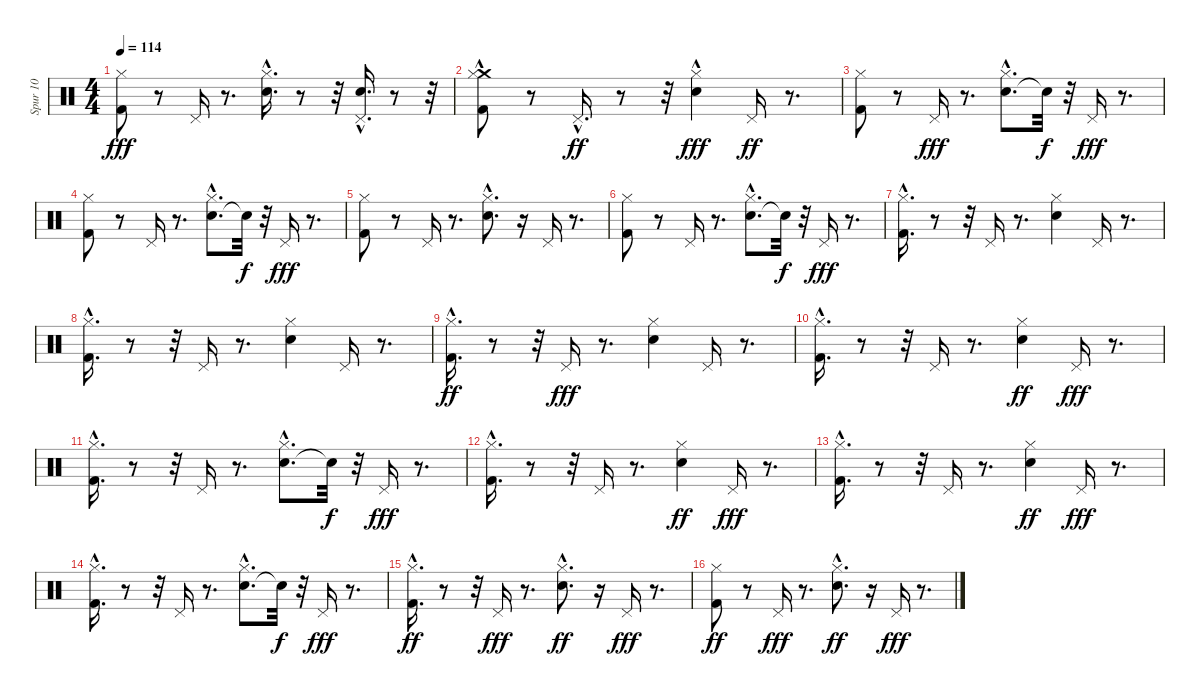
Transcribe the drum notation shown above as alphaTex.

\track ("Spur 10" "Spur 10") {instrument percussion}
\staff {score}
\articulation defaults
\ts (4 4)
\tempo 114
\clef neutral
\ks c
("Kick (hit) 2" "Hi-Hat (closed)").8{dy fff} r.8 "Pedal Hi-Hat (hit)".16 r.8{d} ("Snare (hit) 2"{hac} "Hi-Hat (closed)").16{d} r.8 r.32 ("Snare (hit) 2"{hac} "Pedal Hi-Hat (hit)").16{d} r.8 r.32 |
("Kick (hit) 2" "Crash medium (hit)"{hac} "Hi-Hat (closed)"{hac}).8 r.8 "Pedal Hi-Hat (hit)"{hac}.16{d dy ff} r.8 r.32 ("Snare (hit) 2" "Hi-Hat (closed)"{hac}).4{dy fff} "Pedal Hi-Hat (hit)".16{dy ff} r.8{d} |
("Kick (hit) 2" "Hi-Hat (closed)").8 r.8 "Pedal Hi-Hat (hit)".16{dy fff} r.8{d} ("Snare (hit) 2"{hac} "Hi-Hat (closed)").8{d} "Snare (hit)"{t}.32{dy f} r.32 "Pedal Hi-Hat (hit)".16{dy fff} r.8{d} |
("Kick (hit) 2" "Hi-Hat (closed)").8 r.8 "Pedal Hi-Hat (hit)".16 r.8{d} ("Snare (hit) 2"{hac} "Hi-Hat (closed)").8{d} "Snare (hit)"{t}.32{dy f} r.32 "Pedal Hi-Hat (hit)".16{dy fff} r.8{d} |
("Kick (hit) 2" "Hi-Hat (closed)").8 r.8 "Pedal Hi-Hat (hit)".16 r.8{d} ("Snare (hit) 2"{hac} "Hi-Hat (closed)").8{d} r.16 "Pedal Hi-Hat (hit)".16 r.8{d} |
("Kick (hit) 2" "Hi-Hat (closed)").8 r.8 "Pedal Hi-Hat (hit)".16 r.8{d} ("Snare (hit) 2"{hac} "Hi-Hat (closed)").8{d} "Snare (hit)"{t}.32{dy f} r.32 "Pedal Hi-Hat (hit)".16{dy fff} r.8{d} |
("Kick (hit) 2"{hac} "Hi-Hat (closed)").16{d} r.8 r.32 "Pedal Hi-Hat (hit)".16 r.8{d} ("Snare (hit) 2" "Hi-Hat (closed)").4 "Pedal Hi-Hat (hit)".16 r.8{d} |
("Kick (hit) 2"{hac} "Hi-Hat (closed)").16{d} r.8 r.32 "Pedal Hi-Hat (hit)".16 r.8{d} ("Snare (hit) 2" "Hi-Hat (closed)").4 "Pedal Hi-Hat (hit)".16 r.8{d} |
("Kick (hit) 2"{hac} "Hi-Hat (closed)").16{d dy ff} r.8 r.32 "Pedal Hi-Hat (hit)".16{dy fff} r.8{d} ("Snare (hit) 2" "Hi-Hat (closed)").4 "Pedal Hi-Hat (hit)".16 r.8{d} |
("Kick (hit) 2"{hac} "Hi-Hat (closed)").16{d} r.8 r.32 "Pedal Hi-Hat (hit)".16 r.8{d} ("Snare (hit) 2" "Hi-Hat (closed)").4{dy ff} "Pedal Hi-Hat (hit)".16{dy fff} r.8{d} |
("Kick (hit) 2"{hac} "Hi-Hat (closed)").16{d} r.8 r.32 "Pedal Hi-Hat (hit)".16 r.8{d} ("Snare (hit) 2"{hac} "Hi-Hat (closed)").8{d} "Snare (hit)"{t}.32{dy f} r.32 "Pedal Hi-Hat (hit)".16{dy fff} r.8{d} |
("Kick (hit) 2"{hac} "Hi-Hat (closed)").16{d} r.8 r.32 "Pedal Hi-Hat (hit)".16 r.8{d} ("Snare (hit) 2" "Hi-Hat (closed)").4{dy ff} "Pedal Hi-Hat (hit)".16{dy fff} r.8{d} |
("Kick (hit) 2"{hac} "Hi-Hat (closed)").16{d} r.8 r.32 "Pedal Hi-Hat (hit)".16 r.8{d} ("Snare (hit) 2" "Hi-Hat (closed)").4{dy ff} "Pedal Hi-Hat (hit)".16{dy fff} r.8{d} |
("Kick (hit) 2"{hac} "Hi-Hat (closed)").16{d} r.8 r.32 "Pedal Hi-Hat (hit)".16 r.8{d} ("Snare (hit) 2"{hac} "Hi-Hat (closed)").8{d} "Snare (hit)"{t}.32{dy f} r.32 "Pedal Hi-Hat (hit)".16{dy fff} r.8{d} |
("Kick (hit) 2"{hac} "Hi-Hat (closed)").16{d dy ff} r.8 r.32 "Pedal Hi-Hat (hit)".16{dy fff} r.8{d} ("Snare (hit) 2"{hac} "Hi-Hat (closed)").8{d dy ff} r.16 "Pedal Hi-Hat (hit)".16{dy fff} r.8{d} |
("Kick (hit) 2" "Hi-Hat (closed)").8{dy ff} r.8 "Pedal Hi-Hat (hit)".16{dy fff} r.8{d} ("Snare (hit) 2"{hac} "Hi-Hat (closed)").8{d dy ff} r.16 "Pedal Hi-Hat (hit)".16{dy fff} r.8{d}
